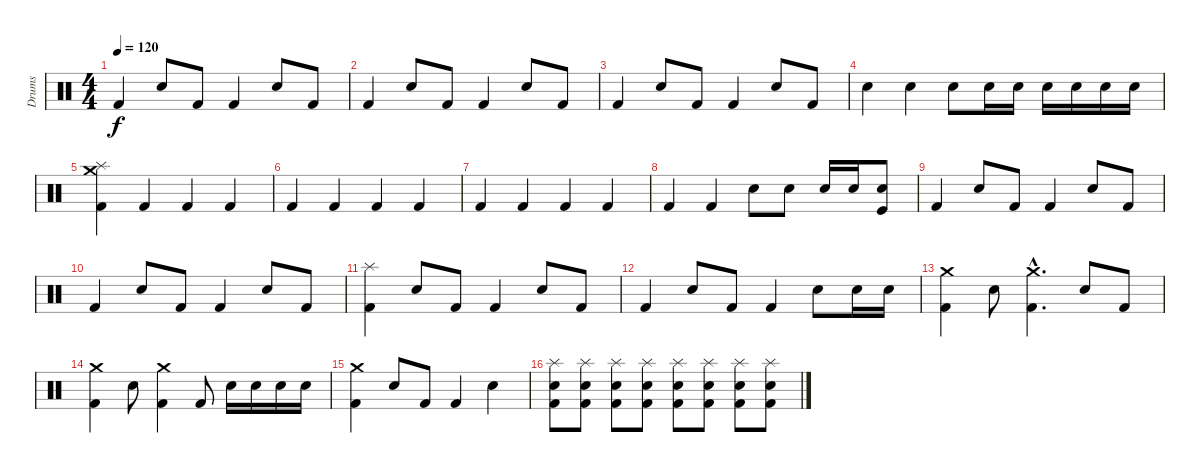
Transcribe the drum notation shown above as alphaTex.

\track ("Drums" "Drums") {instrument percussion}
\staff {score}
\articulation defaults
\ts (4 4)
\tempo 120
\clef neutral
\ks c "Kick (hit) 2".4{dy f} "Snare (hit) 2".8 "Kick (hit) 2".8 "Kick (hit) 2".4 "Snare (hit) 2".8 "Kick (hit) 2".8
|
"Kick (hit) 2".4 "Snare (hit) 2".8 "Kick (hit) 2".8 "Kick (hit) 2".4 "Snare (hit) 2".8 "Kick (hit) 2".8 |
"Kick (hit) 2".4 "Snare (hit) 2".8 "Kick (hit) 2".8 "Kick (hit) 2".4 "Snare (hit) 2".8 "Kick (hit) 2".8 |
"Snare (hit) 2".4 "Snare (hit) 2".4 "Snare (hit) 2".8 "Snare (hit) 2".16 "Snare (hit) 2".16 "Snare (hit) 2".16 "Snare (hit) 2".16 "Snare (hit) 2".16 "Snare (hit) 2".16 |
("Crash medium (hit)" "Splash (hit)" "Kick (hit) 2").4 "Kick (hit) 2".4 "Kick (hit) 2".4 "Kick (hit) 2".4 |
"Kick (hit) 2".4 "Kick (hit) 2".4 "Kick (hit) 2".4 "Kick (hit) 2".4 |
"Kick (hit) 2".4 "Kick (hit) 2".4 "Kick (hit) 2".4 "Kick (hit) 2".4 |
"Kick (hit) 2".4 "Kick (hit) 2".4 "Snare (hit) 2".8 "Snare (hit) 2".8 "Snare (hit) 2".16 "Snare (hit) 2".16 ("Kick (hit)" "Snare (hit) 2").8 |
"Kick (hit) 2".4 "Snare (hit) 2".8 "Kick (hit) 2".8 "Kick (hit) 2".4 "Snare (hit) 2".8 "Kick (hit) 2".8 |
"Kick (hit) 2".4 "Snare (hit) 2".8 "Kick (hit) 2".8 "Kick (hit) 2".4 "Snare (hit) 2".8 "Kick (hit) 2".8 |
("Splash (hit)" "Kick (hit) 2").4 "Snare (hit) 2".8 "Kick (hit) 2".8 "Kick (hit) 2".4 "Snare (hit) 2".8 "Kick (hit) 2".8 |
"Kick (hit) 2".4 "Snare (hit) 2".8 "Kick (hit) 2".8 "Kick (hit) 2".4 "Snare (hit) 2".8 "Snare (hit) 2".16 "Snare (hit) 2".16 |
("Crash medium (hit)" "Kick (hit) 2").4 "Snare (hit) 2".8 ("Crash medium (hit)"{hac} "Kick (hit) 2"{hac}).4{d} "Snare (hit) 2".8 "Kick (hit) 2".8 |
("Crash medium (hit)" "Kick (hit) 2").4 "Snare (hit) 2".8 ("Kick (hit) 2" "Crash medium (hit)").4 "Kick (hit) 2".8 "Snare (hit) 2".16 "Snare (hit) 2".16 "Snare (hit) 2".16 "Snare (hit) 2".16 |
("Crash medium (hit)" "Kick (hit) 2").4 "Snare (hit) 2".8 "Kick (hit) 2".8 "Kick (hit) 2".4 "Snare (hit) 2".4 |
("Snare (hit) 2" "Splash (hit)" "Kick (hit) 2").8 ("Snare (hit) 2" "Kick (hit) 2" "Splash (hit)").8 ("Snare (hit) 2" "Kick (hit) 2" "Splash (hit)").8 ("Snare (hit) 2" "Kick (hit) 2" "Splash (hit)").8 ("Snare (hit) 2" "Kick (hit) 2" "Splash (hit)").8 ("Snare (hit) 2" "Kick (hit) 2" "Splash (hit)").8 ("Snare (hit) 2" "Kick (hit) 2" "Splash (hit)").8 ("Snare (hit) 2" "Kick (hit) 2" "Splash (hit)").8
